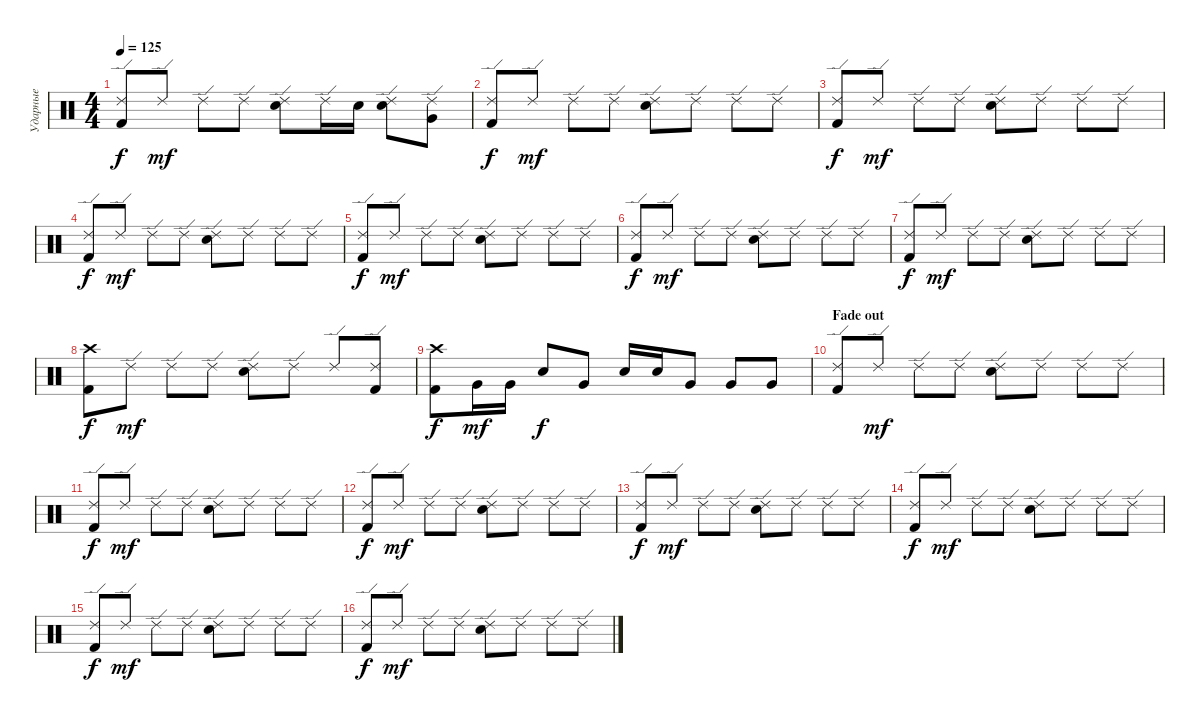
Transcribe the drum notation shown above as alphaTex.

\track ("Ударные" "Ударные") {instrument percussion}
\staff {score}
\articulation defaults
\ts (4 4)
\tempo 125
\clef neutral
\ks c
("Ride (edge) 2" "Kick (hit) 2").8{dy f} "Ride (edge) 2".8{dy mf} "Ride (edge) 2".8 "Ride (edge) 2".8 ("Ride (edge) 2" "Electric Snare (hit)").8 "Ride (edge) 2".16 "Electric Snare (hit)".16 ("Ride (edge) 2" "Electric Snare (hit)").8 ("Ride (edge) 2" "Very Low Tom (hit)").8 |
("Ride (edge) 2" "Kick (hit) 2").8{dy f} "Ride (edge) 2".8{dy mf} "Ride (edge) 2".8 "Ride (edge) 2".8 ("Ride (edge) 2" "Electric Snare (hit)").8 "Ride (edge) 2".8 "Ride (edge) 2".8 "Ride (edge) 2".8 |
("Ride (edge) 2" "Kick (hit) 2").8{dy f} "Ride (edge) 2".8{dy mf} "Ride (edge) 2".8 "Ride (edge) 2".8 ("Ride (edge) 2" "Electric Snare (hit)").8 "Ride (edge) 2".8 "Ride (edge) 2".8 "Ride (edge) 2".8 |
("Ride (edge) 2" "Kick (hit) 2").8{dy f} "Ride (edge) 2".8{dy mf} "Ride (edge) 2".8 "Ride (edge) 2".8 ("Ride (edge) 2" "Electric Snare (hit)").8 "Ride (edge) 2".8 "Ride (edge) 2".8 "Ride (edge) 2".8 |
("Ride (edge) 2" "Kick (hit) 2").8{dy f} "Ride (edge) 2".8{dy mf} "Ride (edge) 2".8 "Ride (edge) 2".8 ("Ride (edge) 2" "Electric Snare (hit)").8 "Ride (edge) 2".8 "Ride (edge) 2".8 "Ride (edge) 2".8 |
("Ride (edge) 2" "Kick (hit) 2").8{dy f} "Ride (edge) 2".8{dy mf} "Ride (edge) 2".8 "Ride (edge) 2".8 ("Ride (edge) 2" "Electric Snare (hit)").8 "Ride (edge) 2".8 "Ride (edge) 2".8 "Ride (edge) 2".8 |
("Ride (edge) 2" "Kick (hit) 2").8{dy f} "Ride (edge) 2".8{dy mf} "Ride (edge) 2".8 "Ride (edge) 2".8 ("Ride (edge) 2" "Electric Snare (hit)").8 "Ride (edge) 2".8 "Ride (edge) 2".8 "Ride (edge) 2".8 |
("Crash high (hit)" "Kick (hit) 2").8{dy f} "Ride (edge) 2".8{dy mf} "Ride (edge) 2".8 "Ride (edge) 2".8 ("Ride (edge) 2" "Electric Snare (hit)").8 "Ride (edge) 2".8 "Ride (edge) 2".8 ("Ride (edge) 2" "Kick (hit) 2").8 |
("Crash high (hit)" "Kick (hit) 2").8{dy f} "Very Low Tom (hit)".16{dy mf} "Very Low Tom (hit)".16 "Electric Snare (hit)".8{dy f} "Very Low Tom (hit)".8 "Electric Snare (hit)".16 "Electric Snare (hit)".16 "Very Low Tom (hit)".8 "Very Low Tom (hit)".8 "Very Low Tom (hit)".8 |
\section ("" "Fade out")
("Ride (edge) 2" "Kick (hit) 2").8{volume 11} "Ride (edge) 2".8{dy mf} "Ride (edge) 2".8 "Ride (edge) 2".8 ("Ride (edge) 2" "Electric Snare (hit)").8 "Ride (edge) 2".8 "Ride (edge) 2".8 "Ride (edge) 2".8 |
("Ride (edge) 2" "Kick (hit) 2").8{dy f} "Ride (edge) 2".8{dy mf} "Ride (edge) 2".8 "Ride (edge) 2".8 ("Ride (edge) 2" "Electric Snare (hit)").8 "Ride (edge) 2".8 "Ride (edge) 2".8 "Ride (edge) 2".8 |
("Ride (edge) 2" "Kick (hit) 2").8{dy f} "Ride (edge) 2".8{dy mf} "Ride (edge) 2".8 "Ride (edge) 2".8 ("Ride (edge) 2" "Electric Snare (hit)").8 "Ride (edge) 2".8 "Ride (edge) 2".8 "Ride (edge) 2".8 |
("Ride (edge) 2" "Kick (hit) 2").8{dy f} "Ride (edge) 2".8{dy mf} "Ride (edge) 2".8 "Ride (edge) 2".8 ("Ride (edge) 2" "Electric Snare (hit)").8 "Ride (edge) 2".8 "Ride (edge) 2".8 "Ride (edge) 2".8 |
("Ride (edge) 2" "Kick (hit) 2").8{dy f} "Ride (edge) 2".8{dy mf} "Ride (edge) 2".8 "Ride (edge) 2".8 ("Ride (edge) 2" "Electric Snare (hit)").8 "Ride (edge) 2".8 "Ride (edge) 2".8 "Ride (edge) 2".8 |
("Ride (edge) 2" "Kick (hit) 2").8{dy f} "Ride (edge) 2".8{dy mf} "Ride (edge) 2".8 "Ride (edge) 2".8 ("Ride (edge) 2" "Electric Snare (hit)").8 "Ride (edge) 2".8 "Ride (edge) 2".8 "Ride (edge) 2".8 |
("Ride (edge) 2" "Kick (hit) 2").8{dy f} "Ride (edge) 2".8{dy mf} "Ride (edge) 2".8 "Ride (edge) 2".8 ("Ride (edge) 2" "Electric Snare (hit)").8 "Ride (edge) 2".8 "Ride (edge) 2".8 "Ride (edge) 2".8
